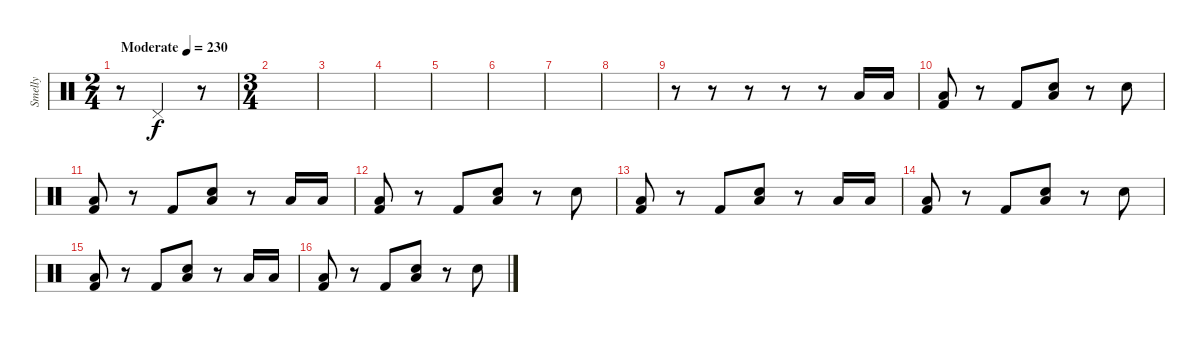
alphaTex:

\track ("Smelly" "Smelly") {instrument percussion}
\staff {score}
\articulation defaults
\ts (2 4)
\tempo (230 "Moderate")
\clef neutral
\ks c
r.8{dy f} "Pedal Hi-Hat (hit)".4 r.8 |
\ts (3 4)
|
|
|
|
|
|
|
r.8 r.8 r.8 r.8 r.8 "Low Floor Tom (hit)".16 "Low Floor Tom (hit)".16 |
("Low Floor Tom (hit)" "Kick (hit) 2").8 r.8 "Kick (hit) 2".8 ("Low Floor Tom (hit)" "Electric Snare (hit)").8 r.8 "Electric Snare (hit)".8 |
("Low Floor Tom (hit)" "Kick (hit) 2").8 r.8 "Kick (hit) 2".8 ("Low Floor Tom (hit)" "Electric Snare (hit)").8 r.8 "Low Floor Tom (hit)".16 "Low Floor Tom (hit)".16 |
("Low Floor Tom (hit)" "Kick (hit) 2").8 r.8 "Kick (hit) 2".8 ("Low Floor Tom (hit)" "Electric Snare (hit)").8 r.8 "Electric Snare (hit)".8 |
("Low Floor Tom (hit)" "Kick (hit) 2").8 r.8 "Kick (hit) 2".8 ("Low Floor Tom (hit)" "Electric Snare (hit)").8 r.8 "Low Floor Tom (hit)".16 "Low Floor Tom (hit)".16 |
("Low Floor Tom (hit)" "Kick (hit) 2").8 r.8 "Kick (hit) 2".8 ("Low Floor Tom (hit)" "Electric Snare (hit)").8 r.8 "Electric Snare (hit)".8 |
("Low Floor Tom (hit)" "Kick (hit) 2").8 r.8 "Kick (hit) 2".8 ("Low Floor Tom (hit)" "Electric Snare (hit)").8 r.8 "Low Floor Tom (hit)".16 "Low Floor Tom (hit)".16 |
("Low Floor Tom (hit)" "Kick (hit) 2").8 r.8 "Kick (hit) 2".8 ("Low Floor Tom (hit)" "Electric Snare (hit)").8 r.8 "Electric Snare (hit)".8
